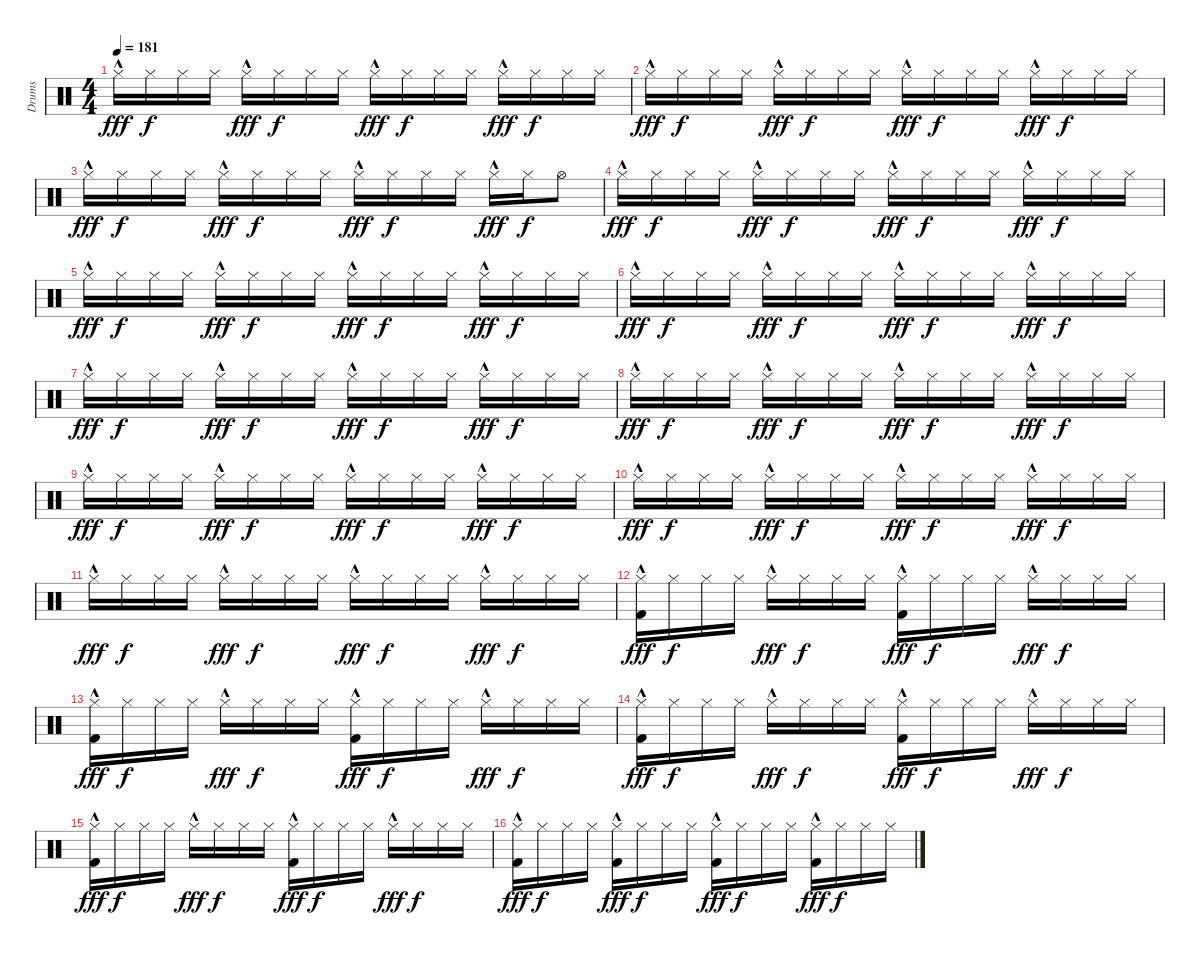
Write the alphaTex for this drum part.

\track ("Drums" "Drums") {instrument percussion}
\staff {score}
\articulation defaults
\ts (4 4)
\tempo 181
\clef neutral
\ks c "Hi-Hat (closed)"{hac}.16{dy fff} "Hi-Hat (closed)".16{dy f} "Hi-Hat (closed)".16 "Hi-Hat (closed)".16 "Hi-Hat (closed)"{hac}.16{dy fff} "Hi-Hat (closed)".16{dy f} "Hi-Hat (closed)".16 "Hi-Hat (closed)".16 "Hi-Hat (closed)"{hac}.16{dy fff} "Hi-Hat (closed)".16{dy f} "Hi-Hat (closed)".16 "Hi-Hat (closed)".16 "Hi-Hat (closed)"{hac}.16{dy fff} "Hi-Hat (closed)".16{dy f} "Hi-Hat (closed)".16 "Hi-Hat (closed)".16
|
"Hi-Hat (closed)"{hac}.16{dy fff} "Hi-Hat (closed)".16{dy f} "Hi-Hat (closed)".16 "Hi-Hat (closed)".16 "Hi-Hat (closed)"{hac}.16{dy fff} "Hi-Hat (closed)".16{dy f} "Hi-Hat (closed)".16 "Hi-Hat (closed)".16 "Hi-Hat (closed)"{hac}.16{dy fff} "Hi-Hat (closed)".16{dy f} "Hi-Hat (closed)".16 "Hi-Hat (closed)".16 "Hi-Hat (closed)"{hac}.16{dy fff} "Hi-Hat (closed)".16{dy f} "Hi-Hat (closed)".16 "Hi-Hat (closed)".16 |
"Hi-Hat (closed)"{hac}.16{dy fff} "Hi-Hat (closed)".16{dy f} "Hi-Hat (closed)".16 "Hi-Hat (closed)".16 "Hi-Hat (closed)"{hac}.16{dy fff} "Hi-Hat (closed)".16{dy f} "Hi-Hat (closed)".16 "Hi-Hat (closed)".16 "Hi-Hat (closed)"{hac}.16{dy fff} "Hi-Hat (closed)".16{dy f} "Hi-Hat (closed)".16 "Hi-Hat (closed)".16 "Hi-Hat (closed)"{hac}.16{dy fff} "Hi-Hat (closed)".16{dy f} "Hi-Hat (open)".8 |
"Hi-Hat (closed)"{hac}.16{dy fff} "Hi-Hat (closed)".16{dy f} "Hi-Hat (closed)".16 "Hi-Hat (closed)".16 "Hi-Hat (closed)"{hac}.16{dy fff} "Hi-Hat (closed)".16{dy f} "Hi-Hat (closed)".16 "Hi-Hat (closed)".16 "Hi-Hat (closed)"{hac}.16{dy fff} "Hi-Hat (closed)".16{dy f} "Hi-Hat (closed)".16 "Hi-Hat (closed)".16 "Hi-Hat (closed)"{hac}.16{dy fff} "Hi-Hat (closed)".16{dy f} "Hi-Hat (closed)".16 "Hi-Hat (closed)".16 |
"Hi-Hat (closed)"{hac}.16{dy fff} "Hi-Hat (closed)".16{dy f} "Hi-Hat (closed)".16 "Hi-Hat (closed)".16 "Hi-Hat (closed)"{hac}.16{dy fff} "Hi-Hat (closed)".16{dy f} "Hi-Hat (closed)".16 "Hi-Hat (closed)".16 "Hi-Hat (closed)"{hac}.16{dy fff} "Hi-Hat (closed)".16{dy f} "Hi-Hat (closed)".16 "Hi-Hat (closed)".16 "Hi-Hat (closed)"{hac}.16{dy fff} "Hi-Hat (closed)".16{dy f} "Hi-Hat (closed)".16 "Hi-Hat (closed)".16 |
"Hi-Hat (closed)"{hac}.16{dy fff} "Hi-Hat (closed)".16{dy f} "Hi-Hat (closed)".16 "Hi-Hat (closed)".16 "Hi-Hat (closed)"{hac}.16{dy fff} "Hi-Hat (closed)".16{dy f} "Hi-Hat (closed)".16 "Hi-Hat (closed)".16 "Hi-Hat (closed)"{hac}.16{dy fff} "Hi-Hat (closed)".16{dy f} "Hi-Hat (closed)".16 "Hi-Hat (closed)".16 "Hi-Hat (closed)"{hac}.16{dy fff} "Hi-Hat (closed)".16{dy f} "Hi-Hat (closed)".16 "Hi-Hat (closed)".16 |
"Hi-Hat (closed)"{hac}.16{dy fff} "Hi-Hat (closed)".16{dy f} "Hi-Hat (closed)".16 "Hi-Hat (closed)".16 "Hi-Hat (closed)"{hac}.16{dy fff} "Hi-Hat (closed)".16{dy f} "Hi-Hat (closed)".16 "Hi-Hat (closed)".16 "Hi-Hat (closed)"{hac}.16{dy fff} "Hi-Hat (closed)".16{dy f} "Hi-Hat (closed)".16 "Hi-Hat (closed)".16 "Hi-Hat (closed)"{hac}.16{dy fff} "Hi-Hat (closed)".16{dy f} "Hi-Hat (closed)".16 "Hi-Hat (closed)".16 |
"Hi-Hat (closed)"{hac}.16{dy fff} "Hi-Hat (closed)".16{dy f} "Hi-Hat (closed)".16 "Hi-Hat (closed)".16 "Hi-Hat (closed)"{hac}.16{dy fff} "Hi-Hat (closed)".16{dy f} "Hi-Hat (closed)".16 "Hi-Hat (closed)".16 "Hi-Hat (closed)"{hac}.16{dy fff} "Hi-Hat (closed)".16{dy f} "Hi-Hat (closed)".16 "Hi-Hat (closed)".16 "Hi-Hat (closed)"{hac}.16{dy fff} "Hi-Hat (closed)".16{dy f} "Hi-Hat (closed)".16 "Hi-Hat (closed)".16 |
"Hi-Hat (closed)"{hac}.16{dy fff} "Hi-Hat (closed)".16{dy f} "Hi-Hat (closed)".16 "Hi-Hat (closed)".16 "Hi-Hat (closed)"{hac}.16{dy fff} "Hi-Hat (closed)".16{dy f} "Hi-Hat (closed)".16 "Hi-Hat (closed)".16 "Hi-Hat (closed)"{hac}.16{dy fff} "Hi-Hat (closed)".16{dy f} "Hi-Hat (closed)".16 "Hi-Hat (closed)".16 "Hi-Hat (closed)"{hac}.16{dy fff} "Hi-Hat (closed)".16{dy f} "Hi-Hat (closed)".16 "Hi-Hat (closed)".16 |
"Hi-Hat (closed)"{hac}.16{dy fff} "Hi-Hat (closed)".16{dy f} "Hi-Hat (closed)".16 "Hi-Hat (closed)".16 "Hi-Hat (closed)"{hac}.16{dy fff} "Hi-Hat (closed)".16{dy f} "Hi-Hat (closed)".16 "Hi-Hat (closed)".16 "Hi-Hat (closed)"{hac}.16{dy fff} "Hi-Hat (closed)".16{dy f} "Hi-Hat (closed)".16 "Hi-Hat (closed)".16 "Hi-Hat (closed)"{hac}.16{dy fff} "Hi-Hat (closed)".16{dy f} "Hi-Hat (closed)".16 "Hi-Hat (closed)".16 |
"Hi-Hat (closed)"{hac}.16{dy fff} "Hi-Hat (closed)".16{dy f} "Hi-Hat (closed)".16 "Hi-Hat (closed)".16 "Hi-Hat (closed)"{hac}.16{dy fff} "Hi-Hat (closed)".16{dy f} "Hi-Hat (closed)".16 "Hi-Hat (closed)".16 "Hi-Hat (closed)"{hac}.16{dy fff} "Hi-Hat (closed)".16{dy f} "Hi-Hat (closed)".16 "Hi-Hat (closed)".16 "Hi-Hat (closed)"{hac}.16{dy fff} "Hi-Hat (closed)".16{dy f} "Hi-Hat (closed)".16 "Hi-Hat (closed)".16 |
("Hi-Hat (closed)"{hac} "Kick (hit) 2").16{dy fff} "Hi-Hat (closed)".16{dy f} "Hi-Hat (closed)".16 "Hi-Hat (closed)".16 "Hi-Hat (closed)"{hac}.16{dy fff} "Hi-Hat (closed)".16{dy f} "Hi-Hat (closed)".16 "Hi-Hat (closed)".16 ("Hi-Hat (closed)"{hac} "Kick (hit) 2").16{dy fff} "Hi-Hat (closed)".16{dy f} "Hi-Hat (closed)".16 "Hi-Hat (closed)".16 "Hi-Hat (closed)"{hac}.16{dy fff} "Hi-Hat (closed)".16{dy f} "Hi-Hat (closed)".16 "Hi-Hat (closed)".16 |
("Hi-Hat (closed)"{hac} "Kick (hit) 2").16{dy fff} "Hi-Hat (closed)".16{dy f} "Hi-Hat (closed)".16 "Hi-Hat (closed)".16 "Hi-Hat (closed)"{hac}.16{dy fff} "Hi-Hat (closed)".16{dy f} "Hi-Hat (closed)".16 "Hi-Hat (closed)".16 ("Hi-Hat (closed)"{hac} "Kick (hit) 2").16{dy fff} "Hi-Hat (closed)".16{dy f} "Hi-Hat (closed)".16 "Hi-Hat (closed)".16 "Hi-Hat (closed)"{hac}.16{dy fff} "Hi-Hat (closed)".16{dy f} "Hi-Hat (closed)".16 "Hi-Hat (closed)".16 |
("Hi-Hat (closed)"{hac} "Kick (hit) 2").16{dy fff} "Hi-Hat (closed)".16{dy f} "Hi-Hat (closed)".16 "Hi-Hat (closed)".16 "Hi-Hat (closed)"{hac}.16{dy fff} "Hi-Hat (closed)".16{dy f} "Hi-Hat (closed)".16 "Hi-Hat (closed)".16 ("Hi-Hat (closed)"{hac} "Kick (hit) 2").16{dy fff} "Hi-Hat (closed)".16{dy f} "Hi-Hat (closed)".16 "Hi-Hat (closed)".16 "Hi-Hat (closed)"{hac}.16{dy fff} "Hi-Hat (closed)".16{dy f} "Hi-Hat (closed)".16 "Hi-Hat (closed)".16 |
("Hi-Hat (closed)"{hac} "Kick (hit) 2").16{dy fff} "Hi-Hat (closed)".16{dy f} "Hi-Hat (closed)".16 "Hi-Hat (closed)".16 "Hi-Hat (closed)"{hac}.16{dy fff} "Hi-Hat (closed)".16{dy f} "Hi-Hat (closed)".16 "Hi-Hat (closed)".16 ("Hi-Hat (closed)"{hac} "Kick (hit) 2").16{dy fff} "Hi-Hat (closed)".16{dy f} "Hi-Hat (closed)".16 "Hi-Hat (closed)".16 "Hi-Hat (closed)"{hac}.16{dy fff} "Hi-Hat (closed)".16{dy f} "Hi-Hat (closed)".16 "Hi-Hat (closed)".16 |
("Hi-Hat (closed)"{hac} "Kick (hit) 2").16{dy fff} "Hi-Hat (closed)".16{dy f} "Hi-Hat (closed)".16 "Hi-Hat (closed)".16 ("Hi-Hat (closed)"{hac} "Kick (hit) 2").16{dy fff} "Hi-Hat (closed)".16{dy f} "Hi-Hat (closed)".16 "Hi-Hat (closed)".16 ("Hi-Hat (closed)"{hac} "Kick (hit) 2").16{dy fff} "Hi-Hat (closed)".16{dy f} "Hi-Hat (closed)".16 "Hi-Hat (closed)".16 ("Hi-Hat (closed)"{hac} "Kick (hit) 2").16{dy fff} "Hi-Hat (closed)".16{dy f} "Hi-Hat (closed)".16 "Hi-Hat (closed)".16
